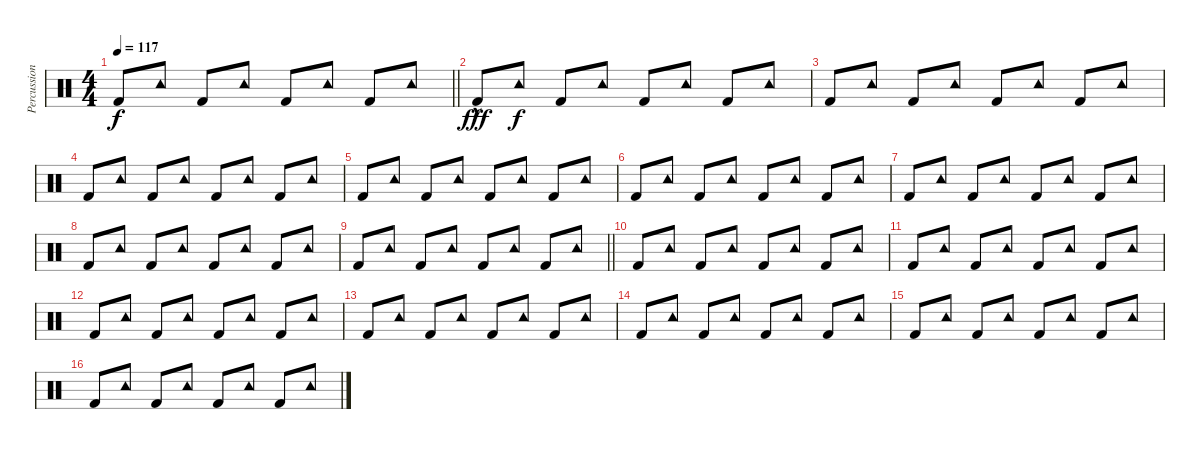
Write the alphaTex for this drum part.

\track ("Percussion" "Percussion") {instrument percussion}
\staff {score}
\articulation defaults
\ts (4 4)
\tempo 117
\clef neutral
\barLineRight lightlight
\ks c "Kick (hit) 2".8{dy f} "Tambourine (hit)".8 "Kick (hit) 2".8 "Tambourine (hit)".8 "Kick (hit) 2".8 "Tambourine (hit)".8 "Kick (hit) 2".8 "Tambourine (hit)".8
|
"Kick (hit) 2"{hac}.8{dy fff} "Tambourine (hit)".8{dy f} "Kick (hit) 2".8 "Tambourine (hit)".8 "Kick (hit) 2".8 "Tambourine (hit)".8 "Kick (hit) 2".8 "Tambourine (hit)".8 |
"Kick (hit) 2".8 "Tambourine (hit)".8 "Kick (hit) 2".8 "Tambourine (hit)".8 "Kick (hit) 2".8 "Tambourine (hit)".8 "Kick (hit) 2".8 "Tambourine (hit)".8 |
"Kick (hit) 2".8 "Tambourine (hit)".8 "Kick (hit) 2".8 "Tambourine (hit)".8 "Kick (hit) 2".8 "Tambourine (hit)".8 "Kick (hit) 2".8 "Tambourine (hit)".8 |
"Kick (hit) 2".8 "Tambourine (hit)".8 "Kick (hit) 2".8 "Tambourine (hit)".8 "Kick (hit) 2".8 "Tambourine (hit)".8 "Kick (hit) 2".8 "Tambourine (hit)".8 |
"Kick (hit) 2".8 "Tambourine (hit)".8 "Kick (hit) 2".8 "Tambourine (hit)".8 "Kick (hit) 2".8 "Tambourine (hit)".8 "Kick (hit) 2".8 "Tambourine (hit)".8 |
"Kick (hit) 2".8 "Tambourine (hit)".8 "Kick (hit) 2".8 "Tambourine (hit)".8 "Kick (hit) 2".8 "Tambourine (hit)".8 "Kick (hit) 2".8 "Tambourine (hit)".8 |
"Kick (hit) 2".8 "Tambourine (hit)".8 "Kick (hit) 2".8 "Tambourine (hit)".8 "Kick (hit) 2".8 "Tambourine (hit)".8 "Kick (hit) 2".8 "Tambourine (hit)".8 |
\barLineRight lightlight "Kick (hit) 2".8 "Tambourine (hit)".8 "Kick (hit) 2".8 "Tambourine (hit)".8 "Kick (hit) 2".8 "Tambourine (hit)".8 "Kick (hit) 2".8 "Tambourine (hit)".8
|
"Kick (hit) 2".8 "Tambourine (hit)".8 "Kick (hit) 2".8 "Tambourine (hit)".8 "Kick (hit) 2".8 "Tambourine (hit)".8 "Kick (hit) 2".8 "Tambourine (hit)".8 |
"Kick (hit) 2".8 "Tambourine (hit)".8 "Kick (hit) 2".8 "Tambourine (hit)".8 "Kick (hit) 2".8 "Tambourine (hit)".8 "Kick (hit) 2".8 "Tambourine (hit)".8 |
"Kick (hit) 2".8 "Tambourine (hit)".8 "Kick (hit) 2".8 "Tambourine (hit)".8 "Kick (hit) 2".8 "Tambourine (hit)".8 "Kick (hit) 2".8 "Tambourine (hit)".8 |
"Kick (hit) 2".8 "Tambourine (hit)".8 "Kick (hit) 2".8 "Tambourine (hit)".8 "Kick (hit) 2".8 "Tambourine (hit)".8 "Kick (hit) 2".8 "Tambourine (hit)".8 |
"Kick (hit) 2".8 "Tambourine (hit)".8 "Kick (hit) 2".8 "Tambourine (hit)".8 "Kick (hit) 2".8 "Tambourine (hit)".8 "Kick (hit) 2".8 "Tambourine (hit)".8 |
"Kick (hit) 2".8 "Tambourine (hit)".8 "Kick (hit) 2".8 "Tambourine (hit)".8 "Kick (hit) 2".8 "Tambourine (hit)".8 "Kick (hit) 2".8 "Tambourine (hit)".8 |
"Kick (hit) 2".8 "Tambourine (hit)".8 "Kick (hit) 2".8 "Tambourine (hit)".8 "Kick (hit) 2".8 "Tambourine (hit)".8 "Kick (hit) 2".8 "Tambourine (hit)".8
